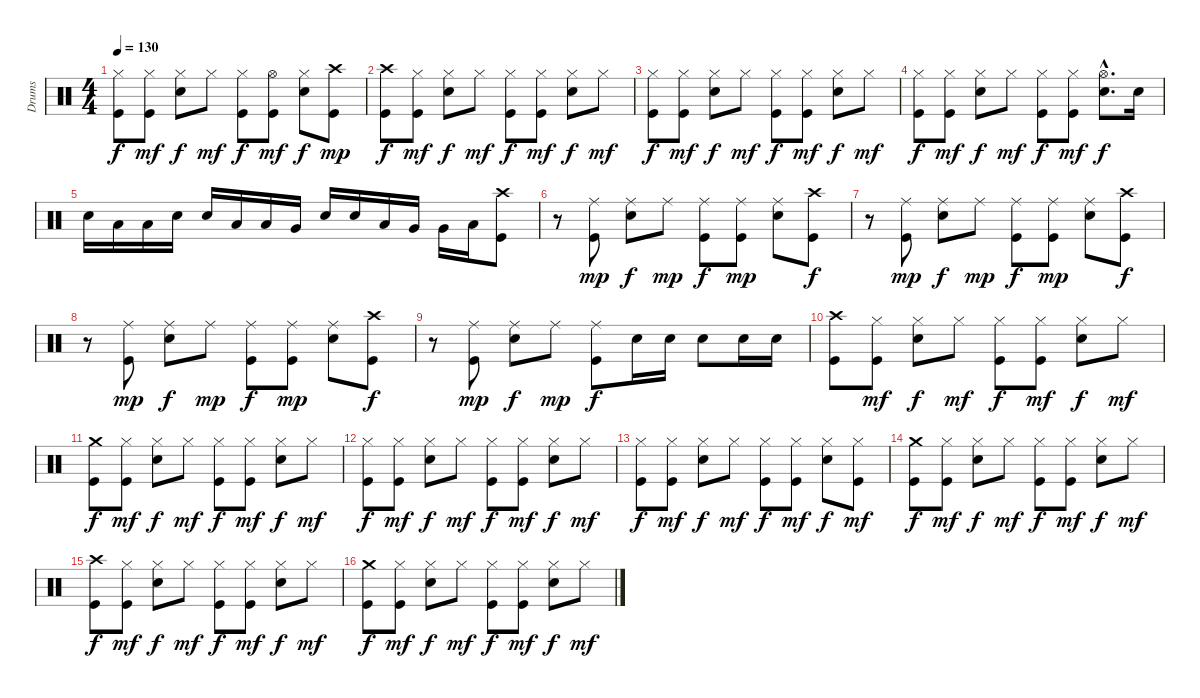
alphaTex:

\track ("Drums" "Drums") {instrument percussion}
\staff {score}
\articulation defaults
\ts (4 4)
\tempo 130
\clef neutral
\ks c
("Hi-Hat (closed)" "Kick (hit)").8{dy f} ("Hi-Hat (closed)" "Kick (hit)").8{dy mf} ("Hi-Hat (closed)" "Snare (hit) 2").8{dy f} "Hi-Hat (closed)".8{dy mf} ("Hi-Hat (closed)" "Kick (hit)").8{dy f} ("Hi-Hat (open)" "Kick (hit)").8{dy mf} ("Hi-Hat (closed)" "Snare (hit) 2").8{dy f} ("Crash high (hit)" "Kick (hit)").8{dy mp} |
("Kick (hit)" "Crash high (hit)").8{dy f} ("Hi-Hat (closed)" "Kick (hit)").8{dy mf} ("Hi-Hat (closed)" "Snare (hit) 2").8{dy f} "Hi-Hat (closed)".8{dy mf} ("Hi-Hat (closed)" "Kick (hit)").8{dy f} ("Hi-Hat (closed)" "Kick (hit)").8{dy mf} ("Hi-Hat (closed)" "Snare (hit) 2").8{dy f} "Hi-Hat (closed)".8{dy mf} |
("Hi-Hat (closed)" "Kick (hit)").8{dy f} ("Hi-Hat (closed)" "Kick (hit)").8{dy mf} ("Hi-Hat (closed)" "Snare (hit) 2").8{dy f} "Hi-Hat (closed)".8{dy mf} ("Hi-Hat (closed)" "Kick (hit)").8{dy f} ("Hi-Hat (closed)" "Kick (hit)").8{dy mf} ("Hi-Hat (closed)" "Snare (hit) 2").8{dy f} "Hi-Hat (closed)".8{dy mf} |
("Hi-Hat (closed)" "Kick (hit)").8{dy f} ("Hi-Hat (closed)" "Kick (hit)").8{dy mf} ("Hi-Hat (closed)" "Snare (hit) 2").8{dy f} "Hi-Hat (closed)".8{dy mf} ("Hi-Hat (closed)" "Kick (hit)").8{dy f} ("Hi-Hat (closed)" "Kick (hit)").8{dy mf} ("Hi-Hat (open)"{hac} "Snare (hit) 2"{hac}).8{d dy f} "Snare (hit) 2".16 |
"Snare (hit) 2".16 "Low Tom (hit)".16 "Low Tom (hit)".16 "Snare (hit) 2".16 "Snare (hit) 2".16 "Low Tom (hit)".16 "Low Tom (hit)".16 "Very Low Tom (hit)".16 "Snare (hit) 2".16 "Snare (hit) 2".16 "Low Tom (hit)".16 "Very Low Tom (hit)".16 "Very Low Tom (hit)".16 "Low Floor Tom (hit)".16 ("Crash high (hit)" "Kick (hit)").8 |
r.8 ("Ride (middle)" "Kick (hit)").8{dy mp} ("Ride (middle)" "Snare (hit) 2").8{dy f} "Ride (middle)".8{dy mp} ("Ride (middle)" "Kick (hit)").8{dy f} ("Ride (middle)" "Kick (hit)").8{dy mp} ("Ride (middle)" "Snare (hit) 2").8 ("Crash high (hit)" "Kick (hit)").8{dy f} |
r.8 ("Ride (middle)" "Kick (hit)").8{dy mp} ("Ride (middle)" "Snare (hit) 2").8{dy f} "Ride (middle)".8{dy mp} ("Ride (middle)" "Kick (hit)").8{dy f} ("Ride (middle)" "Kick (hit)").8{dy mp} ("Ride (middle)" "Snare (hit) 2").8 ("Crash high (hit)" "Kick (hit)").8{dy f} |
r.8 ("Ride (middle)" "Kick (hit)").8{dy mp} ("Ride (middle)" "Snare (hit) 2").8{dy f} "Ride (middle)".8{dy mp} ("Ride (middle)" "Kick (hit)").8{dy f} ("Ride (middle)" "Kick (hit)").8{dy mp} ("Ride (middle)" "Snare (hit) 2").8 ("Crash high (hit)" "Kick (hit)").8{dy f} |
r.8 ("Ride (middle)" "Kick (hit)").8{dy mp} ("Ride (middle)" "Snare (hit) 2").8{dy f} "Ride (middle)".8{dy mp} ("Ride (middle)" "Kick (hit)").8{dy f} "Snare (hit) 2".16 "Snare (hit) 2".16 "Snare (hit) 2".8 "Snare (hit) 2".16 "Snare (hit) 2".16 |
("Kick (hit)" "Crash high (hit)").8 ("Hi-Hat (closed)" "Kick (hit)").8{dy mf} ("Hi-Hat (closed)" "Snare (hit) 2").8{dy f} "Hi-Hat (closed)".8{dy mf} ("Hi-Hat (closed)" "Kick (hit)").8{dy f} ("Hi-Hat (closed)" "Kick (hit)").8{dy mf} ("Hi-Hat (closed)" "Snare (hit) 2").8{dy f} "Hi-Hat (closed)".8{dy mf} |
("Crash medium (hit)" "Kick (hit)").8{dy f} ("Hi-Hat (closed)" "Kick (hit)").8{dy mf} ("Hi-Hat (closed)" "Snare (hit) 2").8{dy f} "Hi-Hat (closed)".8{dy mf} ("Hi-Hat (closed)" "Kick (hit)").8{dy f} ("Hi-Hat (closed)" "Kick (hit)").8{dy mf} ("Hi-Hat (closed)" "Snare (hit) 2").8{dy f} "Hi-Hat (closed)".8{dy mf} |
("Hi-Hat (closed)" "Kick (hit)").8{dy f} ("Hi-Hat (closed)" "Kick (hit)").8{dy mf} ("Hi-Hat (closed)" "Snare (hit) 2").8{dy f} "Hi-Hat (closed)".8{dy mf} ("Hi-Hat (closed)" "Kick (hit)").8{dy f} ("Hi-Hat (closed)" "Kick (hit)").8{dy mf} ("Hi-Hat (closed)" "Snare (hit) 2").8{dy f} "Hi-Hat (closed)".8{dy mf} |
("Hi-Hat (closed)" "Kick (hit)").8{dy f} ("Hi-Hat (closed)" "Kick (hit)").8{dy mf} ("Hi-Hat (closed)" "Snare (hit) 2").8{dy f} "Hi-Hat (closed)".8{dy mf} ("Hi-Hat (closed)" "Kick (hit)").8{dy f} ("Hi-Hat (closed)" "Kick (hit)").8{dy mf} ("Hi-Hat (closed)" "Snare (hit) 2").8{dy f} ("Hi-Hat (closed)" "Kick (hit)").8{dy mf} |
("Kick (hit)" "Crash medium (hit)").8{dy f} ("Hi-Hat (closed)" "Kick (hit)").8{dy mf} ("Hi-Hat (closed)" "Snare (hit) 2").8{dy f} "Hi-Hat (closed)".8{dy mf} ("Hi-Hat (closed)" "Kick (hit)").8{dy f} ("Hi-Hat (closed)" "Kick (hit)").8{dy mf} ("Hi-Hat (closed)" "Snare (hit) 2").8{dy f} "Hi-Hat (closed)".8{dy mf} |
("Kick (hit)" "Crash high (hit)").8{dy f} ("Hi-Hat (closed)" "Kick (hit)").8{dy mf} ("Hi-Hat (closed)" "Snare (hit) 2").8{dy f} "Hi-Hat (closed)".8{dy mf} ("Hi-Hat (closed)" "Kick (hit)").8{dy f} ("Hi-Hat (closed)" "Kick (hit)").8{dy mf} ("Hi-Hat (closed)" "Snare (hit) 2").8{dy f} "Hi-Hat (closed)".8{dy mf} |
("Kick (hit)" "Crash medium (hit)").8{dy f} ("Hi-Hat (closed)" "Kick (hit)").8{dy mf} ("Hi-Hat (closed)" "Snare (hit) 2").8{dy f} "Hi-Hat (closed)".8{dy mf} ("Hi-Hat (closed)" "Kick (hit)").8{dy f} ("Hi-Hat (closed)" "Kick (hit)").8{dy mf} ("Hi-Hat (closed)" "Snare (hit) 2").8{dy f} "Hi-Hat (closed)".8{dy mf}
